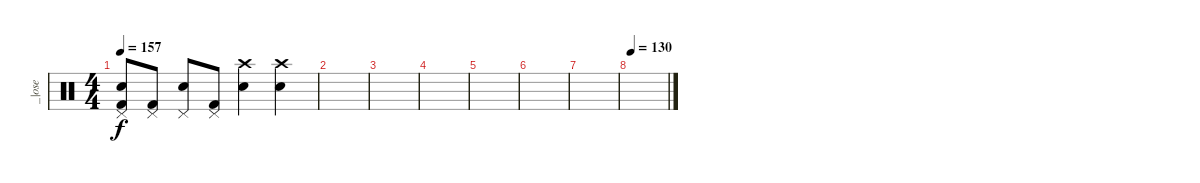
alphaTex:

\track ("_|ose" "_|ose") {instrument percussion}
\staff {score}
\articulation defaults
\ts (4 4)
\tempo 157
\clef neutral
\ks c
("Pedal Hi-Hat (hit)" "Electric Snare (hit)" "Kick (hit) 2").8{dy f} ("Pedal Hi-Hat (hit)" "Kick (hit) 2").8 ("Pedal Hi-Hat (hit)" "Electric Snare (hit)").8 ("Pedal Hi-Hat (hit)" "Kick (hit) 2").8 ("Crash high (hit)" "Electric Snare (hit)").4 ("Crash high (hit)" "Electric Snare (hit)").4 |
|
|
|
|
|
|
\tempo 130
